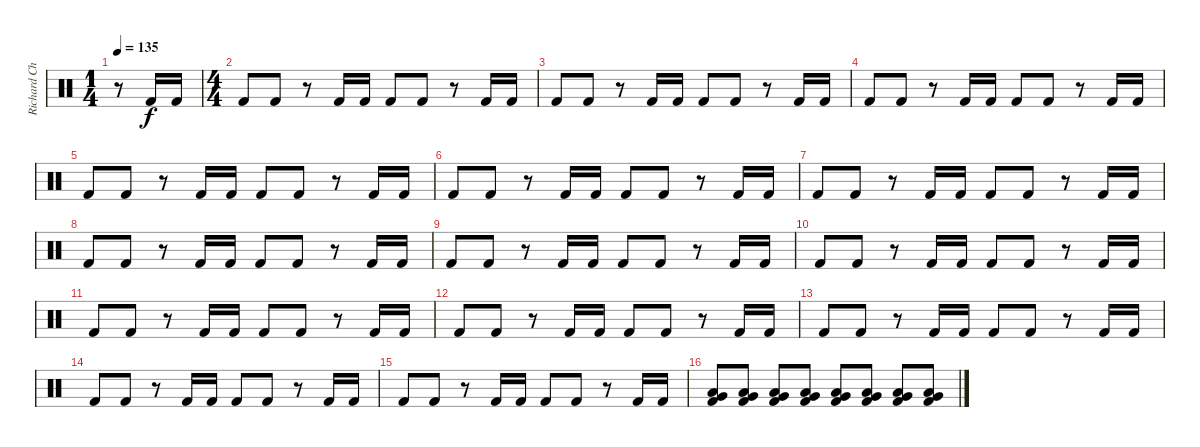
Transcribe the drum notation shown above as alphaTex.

\track ("Richard Christy" "Richard Ch") {instrument percussion}
\staff {score}
\articulation defaults
\ts (1 4)
\tempo 135
\clef neutral
\ks c
r.8{dy f} "Kick (hit) 2".16 "Kick (hit) 2".16 |
\ts (4 4)
"Kick (hit) 2".8 "Kick (hit) 2".8 r.8 "Kick (hit) 2".16 "Kick (hit) 2".16 "Kick (hit) 2".8 "Kick (hit) 2".8 r.8 "Kick (hit) 2".16 "Kick (hit) 2".16 |
"Kick (hit) 2".8 "Kick (hit) 2".8 r.8 "Kick (hit) 2".16 "Kick (hit) 2".16 "Kick (hit) 2".8 "Kick (hit) 2".8 r.8 "Kick (hit) 2".16 "Kick (hit) 2".16 |
"Kick (hit) 2".8 "Kick (hit) 2".8 r.8 "Kick (hit) 2".16 "Kick (hit) 2".16 "Kick (hit) 2".8 "Kick (hit) 2".8 r.8 "Kick (hit) 2".16 "Kick (hit) 2".16 |
"Kick (hit) 2".8 "Kick (hit) 2".8 r.8 "Kick (hit) 2".16 "Kick (hit) 2".16 "Kick (hit) 2".8 "Kick (hit) 2".8 r.8 "Kick (hit) 2".16 "Kick (hit) 2".16 |
"Kick (hit) 2".8 "Kick (hit) 2".8 r.8 "Kick (hit) 2".16 "Kick (hit) 2".16 "Kick (hit) 2".8 "Kick (hit) 2".8 r.8 "Kick (hit) 2".16 "Kick (hit) 2".16 |
"Kick (hit) 2".8 "Kick (hit) 2".8 r.8 "Kick (hit) 2".16 "Kick (hit) 2".16 "Kick (hit) 2".8 "Kick (hit) 2".8 r.8 "Kick (hit) 2".16 "Kick (hit) 2".16 |
"Kick (hit) 2".8 "Kick (hit) 2".8 r.8 "Kick (hit) 2".16 "Kick (hit) 2".16 "Kick (hit) 2".8 "Kick (hit) 2".8 r.8 "Kick (hit) 2".16 "Kick (hit) 2".16 |
"Kick (hit) 2".8 "Kick (hit) 2".8 r.8 "Kick (hit) 2".16 "Kick (hit) 2".16 "Kick (hit) 2".8 "Kick (hit) 2".8 r.8 "Kick (hit) 2".16 "Kick (hit) 2".16 |
"Kick (hit) 2".8 "Kick (hit) 2".8 r.8 "Kick (hit) 2".16 "Kick (hit) 2".16 "Kick (hit) 2".8 "Kick (hit) 2".8 r.8 "Kick (hit) 2".16 "Kick (hit) 2".16 |
"Kick (hit) 2".8 "Kick (hit) 2".8 r.8 "Kick (hit) 2".16 "Kick (hit) 2".16 "Kick (hit) 2".8 "Kick (hit) 2".8 r.8 "Kick (hit) 2".16 "Kick (hit) 2".16 |
"Kick (hit) 2".8 "Kick (hit) 2".8 r.8 "Kick (hit) 2".16 "Kick (hit) 2".16 "Kick (hit) 2".8 "Kick (hit) 2".8 r.8 "Kick (hit) 2".16 "Kick (hit) 2".16 |
"Kick (hit) 2".8 "Kick (hit) 2".8 r.8 "Kick (hit) 2".16 "Kick (hit) 2".16 "Kick (hit) 2".8 "Kick (hit) 2".8 r.8 "Kick (hit) 2".16 "Kick (hit) 2".16 |
"Kick (hit) 2".8 "Kick (hit) 2".8 r.8 "Kick (hit) 2".16 "Kick (hit) 2".16 "Kick (hit) 2".8 "Kick (hit) 2".8 r.8 "Kick (hit) 2".16 "Kick (hit) 2".16 |
"Kick (hit) 2".8 "Kick (hit) 2".8 r.8 "Kick (hit) 2".16 "Kick (hit) 2".16 "Kick (hit) 2".8 "Kick (hit) 2".8 r.8 "Kick (hit) 2".16 "Kick (hit) 2".16 |
("Low Tom (hit)" "Very Low Tom (hit)" "Kick (hit) 2").8 ("Low Tom (hit)" "Very Low Tom (hit)" "Kick (hit) 2").8 ("Low Tom (hit)" "Very Low Tom (hit)" "Kick (hit) 2").8 ("Low Tom (hit)" "Very Low Tom (hit)" "Kick (hit) 2").8 ("Low Tom (hit)" "Very Low Tom (hit)" "Kick (hit) 2").8 ("Low Tom (hit)" "Very Low Tom (hit)" "Kick (hit) 2").8 ("Low Tom (hit)" "Very Low Tom (hit)" "Kick (hit) 2").8 ("Low Tom (hit)" "Very Low Tom (hit)" "Kick (hit) 2").8
